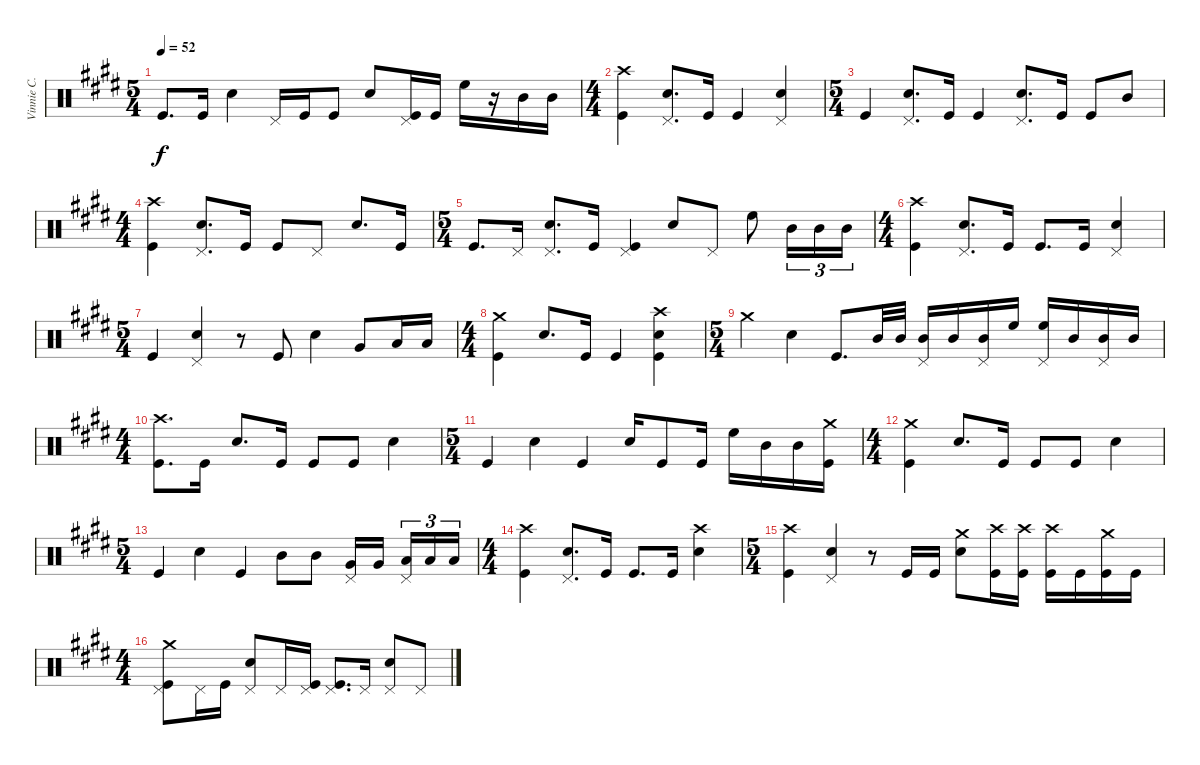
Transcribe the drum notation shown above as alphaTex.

\track ("Vinnie C." "Vinnie C.") {instrument percussion}
\staff {score}
\articulation defaults
\ts (5 4)
\tempo 52
\clef neutral
\ks e "Kick (hit)".8{d dy f} "Kick (hit)".16 "Electric Snare (hit)".4 "Pedal Hi-Hat (hit)".16 "Kick (hit)".16 "Kick (hit)".8 "Electric Snare (hit)".8
("Pedal Hi-Hat (hit)" "Kick (hit)").16 "Kick (hit)".16 "High Floor Tom (hit)".16 r.16 "Mid Tom (hit)".16 "Mid Tom (hit)".16 |
\ts (4 4)
("Crash high (hit)" "Kick (hit)").4 ("Pedal Hi-Hat (hit)" "Electric Snare (hit)").8{d} "Kick (hit)".16 "Kick (hit)".4 ("Pedal Hi-Hat (hit)" "Electric Snare (hit)").4 |
\ts (5 4)
"Kick (hit)".4 ("Pedal Hi-Hat (hit)" "Electric Snare (hit)").8{d} "Kick (hit)".16 "Kick (hit)".4 ("Pedal Hi-Hat (hit)" "Electric Snare (hit)").8{d} "Kick (hit)".16 "Kick (hit)".8 "Mid Tom (hit)".8 |
\ts (4 4)
("Crash high (hit)" "Kick (hit)").4 ("Pedal Hi-Hat (hit)" "Electric Snare (hit)").8{d} "Kick (hit)".16 "Kick (hit)".8 "Pedal Hi-Hat (hit)".8 "Electric Snare (hit)".8{d} "Kick (hit)".16 |
\ts (5 4)
"Kick (hit)".8{d} "Pedal Hi-Hat (hit)".16 ("Pedal Hi-Hat (hit)" "Electric Snare (hit)").8{d} "Kick (hit)".16 ("Pedal Hi-Hat (hit)" "Kick (hit)").4 "Electric Snare (hit)".8 "Pedal Hi-Hat (hit)".8 "High Floor Tom (hit)".8 "Mid Tom (hit)".16{tu (3 2)} "Mid Tom (hit)".16{tu (3 2)} "Mid Tom (hit)".16{tu (3 2)} |
\ts (4 4)
("Crash high (hit)" "Kick (hit)").4 ("Pedal Hi-Hat (hit)" "Electric Snare (hit)").8{d} "Kick (hit)".16 "Kick (hit)".8{d} "Kick (hit)".16 ("Pedal Hi-Hat (hit)" "Electric Snare (hit)").4 |
\ts (5 4)
"Kick (hit)".4 ("Pedal Hi-Hat (hit)" "Electric Snare (hit)").4 r.8 "Kick (hit)".8 "Electric Snare (hit)".4 "Very Low Tom (hit)".8 "Low Floor Tom (hit)".16 "Low Floor Tom (hit)".16 |
\ts (4 4)
("Crash medium (hit)" "Kick (hit)").4 "Electric Snare (hit)".8{d} "Kick (hit)".16 "Kick (hit)".4 ("Crash high (hit)" "Electric Snare (hit)" "Kick (hit)").4 |
\ts (5 4)
"Crash medium (hit)".4 "Electric Snare (hit)".4 "Kick (hit)".8{d} "Mid Tom (hit)".32 "Mid Tom (hit)".32 ("Pedal Hi-Hat (hit)" "Mid Tom (hit)").16 "Mid Tom (hit)".16 ("Pedal Hi-Hat (hit)" "Mid Tom (hit)").16 "High Floor Tom (hit)".16 ("Pedal Hi-Hat (hit)" "High Floor Tom (hit)").16 "Mid Tom (hit)".16 ("Pedal Hi-Hat (hit)" "Mid Tom (hit)").16 "Mid Tom (hit)".16 |
\ts (4 4)
("Crash high (hit)" "Kick (hit)").8{d} "Kick (hit)".16 "Electric Snare (hit)".8{d} "Kick (hit)".16 "Kick (hit)".8 "Kick (hit)".8 "Electric Snare (hit)".4 |
\ts (5 4)
"Kick (hit)".4 "Electric Snare (hit)".4 "Kick (hit)".4 "Electric Snare (hit)".16 "Kick (hit)".8 "Kick (hit)".16 "High Floor Tom (hit)".16 "Mid Tom (hit)".16 "Mid Tom (hit)".16 ("Crash medium (hit)" "Kick (hit)").16 |
\ts (4 4)
("Crash medium (hit)" "Kick (hit)").4 "Electric Snare (hit)".8{d} "Kick (hit)".16 "Kick (hit)".8 "Kick (hit)".8 "Electric Snare (hit)".4 |
\ts (5 4)
"Kick (hit)".4 "Electric Snare (hit)".4 "Kick (hit)".4 "Mid Tom (hit)".8 "Mid Tom (hit)".8 ("Pedal Hi-Hat (hit)" "Very Low Tom (hit)").16 "Very Low Tom (hit)".16 ("Pedal Hi-Hat (hit)" "Low Floor Tom (hit)").16{tu (3 2)} "Low Floor Tom (hit)".16{tu (3 2)} "Low Floor Tom (hit)".16{tu (3 2)} |
\ts (4 4)
("Crash high (hit)" "Kick (hit)").4 ("Pedal Hi-Hat (hit)" "Electric Snare (hit)").8{d} "Kick (hit)".16 "Kick (hit)".8{d} "Kick (hit)".16 ("Crash high (hit)" "Electric Snare (hit)").4 |
\ts (5 4)
("Crash high (hit)" "Kick (hit)").4 ("Pedal Hi-Hat (hit)" "Electric Snare (hit)").4 r.8 "Kick (hit)".16 "Kick (hit)".16 ("Crash medium (hit)" "Electric Snare (hit)").8 ("Crash high (hit)" "Kick (hit)").16 ("Crash high (hit)" "Kick (hit)").16 ("Crash high (hit)" "Kick (hit)").16 "Kick (hit)".16 ("Crash medium (hit)" "Kick (hit)").16 "Kick (hit)".16 |
\ts (4 4)
("Pedal Hi-Hat (hit)" "Crash medium (hit)" "Kick (hit)").8 "Pedal Hi-Hat (hit)".16 "Kick (hit)".16 ("Pedal Hi-Hat (hit)" "Electric Snare (hit)").8 "Pedal Hi-Hat (hit)".16 ("Pedal Hi-Hat (hit)" "Kick (hit)").16 ("Pedal Hi-Hat (hit)" "Kick (hit)").8{d} "Pedal Hi-Hat (hit)".16 ("Pedal Hi-Hat (hit)" "Electric Snare (hit)").8 "Pedal Hi-Hat (hit)".8
